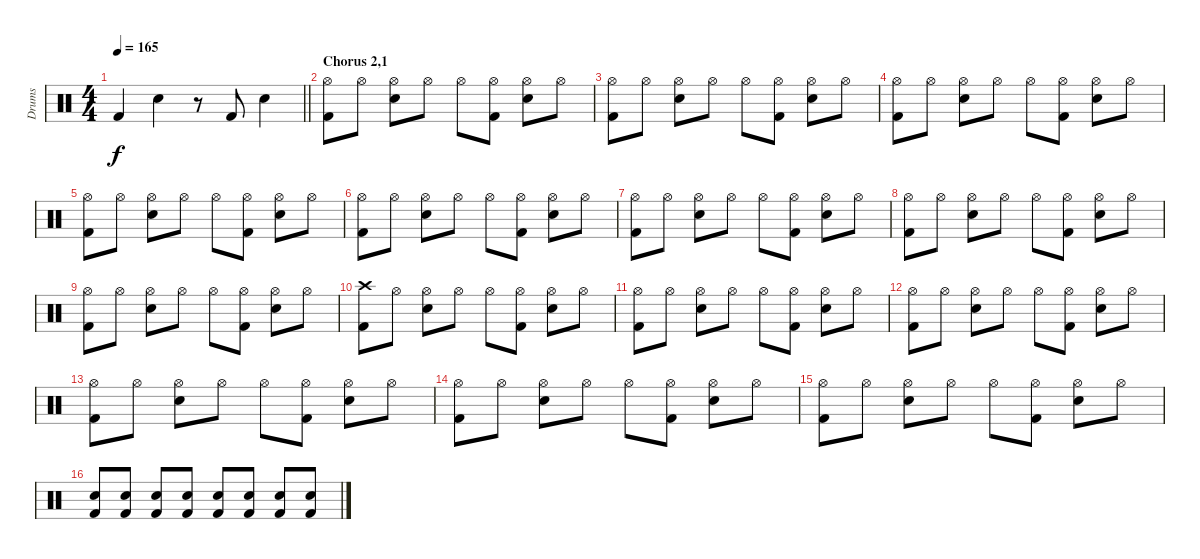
\track ("Drums" "Drums") {instrument percussion}
\staff {score}
\articulation defaults
\ts (4 4)
\tempo 165
\clef neutral
\barLineRight lightlight
\ks c "Kick (hit) 2".4{dy f} "Snare (hit) 2".4
r.8 "Kick (hit) 2".8 "Snare (hit) 2".4 |
\section ("" "Chorus 2,1")
("Kick (hit) 2" "Hi-Hat (open)").8 "Hi-Hat (open)".8 ("Snare (hit) 2" "Hi-Hat (open)").8 "Hi-Hat (open)".8 "Hi-Hat (open)".8 ("Kick (hit) 2" "Hi-Hat (open)").8 ("Snare (hit) 2" "Hi-Hat (open)").8 "Hi-Hat (open)".8 |
("Kick (hit) 2" "Hi-Hat (open)").8 "Hi-Hat (open)".8 ("Snare (hit) 2" "Hi-Hat (open)").8 "Hi-Hat (open)".8 "Hi-Hat (open)".8 ("Kick (hit) 2" "Hi-Hat (open)").8 ("Snare (hit) 2" "Hi-Hat (open)").8 "Hi-Hat (open)".8 |
("Kick (hit) 2" "Hi-Hat (open)").8 "Hi-Hat (open)".8 ("Snare (hit) 2" "Hi-Hat (open)").8 "Hi-Hat (open)".8 "Hi-Hat (open)".8 ("Kick (hit) 2" "Hi-Hat (open)").8 ("Snare (hit) 2" "Hi-Hat (open)").8 "Hi-Hat (open)".8 |
("Kick (hit) 2" "Hi-Hat (open)").8 "Hi-Hat (open)".8 ("Snare (hit) 2" "Hi-Hat (open)").8 "Hi-Hat (open)".8 "Hi-Hat (open)".8 ("Kick (hit) 2" "Hi-Hat (open)").8 ("Snare (hit) 2" "Hi-Hat (open)").8 "Hi-Hat (open)".8 |
("Kick (hit) 2" "Hi-Hat (open)").8 "Hi-Hat (open)".8 ("Snare (hit) 2" "Hi-Hat (open)").8 "Hi-Hat (open)".8 "Hi-Hat (open)".8 ("Kick (hit) 2" "Hi-Hat (open)").8 ("Snare (hit) 2" "Hi-Hat (open)").8 "Hi-Hat (open)".8 |
("Kick (hit) 2" "Hi-Hat (open)").8 "Hi-Hat (open)".8 ("Snare (hit) 2" "Hi-Hat (open)").8 "Hi-Hat (open)".8 "Hi-Hat (open)".8 ("Kick (hit) 2" "Hi-Hat (open)").8 ("Snare (hit) 2" "Hi-Hat (open)").8 "Hi-Hat (open)".8 |
("Kick (hit) 2" "Hi-Hat (open)").8 "Hi-Hat (open)".8 ("Snare (hit) 2" "Hi-Hat (open)").8 "Hi-Hat (open)".8 "Hi-Hat (open)".8 ("Kick (hit) 2" "Hi-Hat (open)").8 ("Snare (hit) 2" "Hi-Hat (open)").8 "Hi-Hat (open)".8 |
("Kick (hit) 2" "Hi-Hat (open)").8 "Hi-Hat (open)".8 ("Snare (hit) 2" "Hi-Hat (open)").8 "Hi-Hat (open)".8 "Hi-Hat (open)".8 ("Kick (hit) 2" "Hi-Hat (open)").8 ("Snare (hit) 2" "Hi-Hat (open)").8 "Hi-Hat (open)".8 |
("Kick (hit) 2" "Crash high (hit)").8 "Hi-Hat (open)".8 ("Snare (hit) 2" "Hi-Hat (open)").8 "Hi-Hat (open)".8 "Hi-Hat (open)".8 ("Kick (hit) 2" "Hi-Hat (open)").8 ("Snare (hit) 2" "Hi-Hat (open)").8 "Hi-Hat (open)".8 |
("Kick (hit) 2" "Hi-Hat (open)").8 "Hi-Hat (open)".8 ("Snare (hit) 2" "Hi-Hat (open)").8 "Hi-Hat (open)".8 "Hi-Hat (open)".8 ("Kick (hit) 2" "Hi-Hat (open)").8 ("Snare (hit) 2" "Hi-Hat (open)").8 "Hi-Hat (open)".8 |
("Kick (hit) 2" "Hi-Hat (open)").8 "Hi-Hat (open)".8 ("Snare (hit) 2" "Hi-Hat (open)").8 "Hi-Hat (open)".8 "Hi-Hat (open)".8 ("Kick (hit) 2" "Hi-Hat (open)").8 ("Snare (hit) 2" "Hi-Hat (open)").8 "Hi-Hat (open)".8 |
("Kick (hit) 2" "Hi-Hat (open)").8 "Hi-Hat (open)".8 ("Snare (hit) 2" "Hi-Hat (open)").8 "Hi-Hat (open)".8 "Hi-Hat (open)".8 ("Kick (hit) 2" "Hi-Hat (open)").8 ("Snare (hit) 2" "Hi-Hat (open)").8 "Hi-Hat (open)".8 |
("Kick (hit) 2" "Hi-Hat (open)").8 "Hi-Hat (open)".8 ("Snare (hit) 2" "Hi-Hat (open)").8 "Hi-Hat (open)".8 "Hi-Hat (open)".8 ("Kick (hit) 2" "Hi-Hat (open)").8 ("Snare (hit) 2" "Hi-Hat (open)").8 "Hi-Hat (open)".8 |
("Kick (hit) 2" "Hi-Hat (open)").8 "Hi-Hat (open)".8 ("Snare (hit) 2" "Hi-Hat (open)").8 "Hi-Hat (open)".8 "Hi-Hat (open)".8 ("Kick (hit) 2" "Hi-Hat (open)").8 ("Snare (hit) 2" "Hi-Hat (open)").8 "Hi-Hat (open)".8 |
("Snare (hit) 2" "Kick (hit) 2").8 ("Snare (hit) 2" "Kick (hit) 2").8 ("Snare (hit) 2" "Kick (hit) 2").8 ("Snare (hit) 2" "Kick (hit) 2").8 ("Snare (hit) 2" "Kick (hit) 2").8 ("Snare (hit) 2" "Kick (hit) 2").8 ("Snare (hit) 2" "Kick (hit) 2").8 ("Snare (hit) 2" "Kick (hit) 2").8
